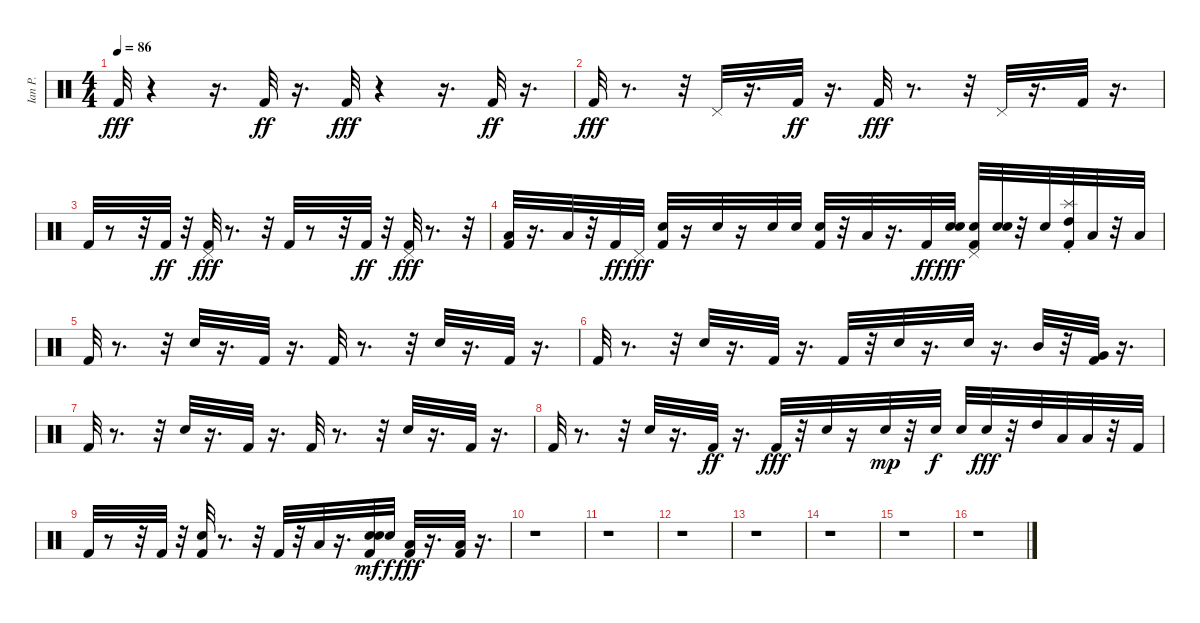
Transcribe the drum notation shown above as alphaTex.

\track ("Ian P." "Ian P.") {instrument percussion}
\staff {score}
\articulation defaults
\ts (4 4)
\tempo 86
\clef neutral
\ks c "Kick (hit) 2".32{dy fff}
r.4 r.16{d} "Kick (hit) 2".32{dy ff} r.16{d} "Kick (hit) 2".32{dy fff} r.4 r.16{d} "Kick (hit) 2".32{dy ff} r.16{d} |
"Kick (hit) 2".32{dy fff} r.8{d} r.32 "Pedal Hi-Hat (hit)".32 r.16{d} "Kick (hit) 2".32{dy ff} r.16{d} "Kick (hit) 2".32{dy fff} r.8{d} r.32 "Pedal Hi-Hat (hit)".32 r.16{d} "Kick (hit) 2".32 r.16{d} |
"Kick (hit) 2".32 r.8 r.32 "Kick (hit) 2".32{dy ff} r.32 ("Kick (hit) 2" "Pedal Hi-Hat (hit)").32{dy fff} r.8{d} r.32 "Kick (hit) 2".32 r.8 r.32 "Kick (hit) 2".32{dy ff} r.32 ("Kick (hit) 2" "Pedal Hi-Hat (hit)").32{dy fff} r.8{d} r.32 |
("Kick (hit) 2" "Low Floor Tom (hit)").32 r.16{d} "Low Floor Tom (hit)".32 r.32 "Kick (hit) 2".32{dy ff} "Pedal Hi-Hat (hit)".32{dy fff} ("Kick (hit) 2" "Snare (hit) 2").32 r.16 "Snare (hit) 2".32 r.16 "Snare (hit) 2".32 "Snare (hit) 2".32 ("Snare (hit) 2" "Kick (hit) 2").32 r.32 "Low Floor Tom (hit)".32 r.16{d} "Kick (hit) 2".32{dy ff} ("Snare (hit) 2" "Snare (hit) 2").32{dy fff} ("Kick (hit) 2" "Pedal Hi-Hat (hit)" "Snare (hit) 2").32 ("Snare (hit) 2" "Snare (hit) 2").32 r.32 "Snare (hit) 2".32 ("Kick (hit) 2" "Splash (choke)" "High Tom (hit)").32 "Low Tom (hit)".32 r.32 "Low Floor Tom (hit)".32 |
"Kick (hit) 2".32{volume 16 balance 8} r.8{d} r.32 "Snare (hit) 2".32 r.16{d} "Kick (hit) 2".32 r.16{d} "Kick (hit) 2".32 r.8{d} r.32 "Snare (hit) 2".32 r.16{d} "Kick (hit) 2".32 r.16{d} |
"Kick (hit) 2".32 r.8{d} r.32 "Snare (hit) 2".32 r.16{d} "Kick (hit) 2".32 r.16{d} "Kick (hit) 2".32 r.32 "Snare (hit) 2".32 r.16{d} "Snare (hit) 2".32 r.16{d} "Mid Tom (hit)".32 r.32 ("Very Low Tom (hit)" "Kick (hit) 2").32 r.16{d} |
"Kick (hit) 2".32 r.8{d} r.32 "Snare (hit) 2".32 r.16{d} "Kick (hit) 2".32 r.16{d} "Kick (hit) 2".32 r.8{d} r.32 "Snare (hit) 2".32 r.16{d} "Kick (hit) 2".32 r.16{d} |
"Kick (hit) 2".32 r.8{d} r.32 "Snare (hit) 2".32 r.16{d} "Kick (hit) 2".32{dy ff} r.16{d} "Kick (hit) 2".32{dy fff} r.32 "Snare (hit) 2".32 r.16 "Snare (hit) 2".32{dy mp} r.32 "Snare (hit) 2".32{dy f} "Snare (hit) 2".32 "Snare (hit) 2".32{dy fff} r.32 "High Tom (hit)".32 "Low Tom (hit)".32 "Low Floor Tom (hit)".32 r.32 "Kick (hit) 2".32 |
"Kick (hit) 2".32 r.8 r.32 "Kick (hit) 2".32 r.32 ("Snare (hit) 2" "Kick (hit) 2").32 r.8{d} r.32 "Kick (hit) 2".32 r.32 "Low Floor Tom (hit)".32 r.16{d} ("Kick (hit) 2" "Snare (hit) 2" "Snare (hit) 2").32{dy mf} "Snare (hit) 2".32{dy f} ("Kick (hit) 2" "Low Tom (hit)").32{dy fff} r.16{d} ("Kick (hit) 2" "Low Floor Tom (hit)").32 r.16{d} |
r.1 |
r.1 |
r.1 |
r.1 |
r.1 |
r.1 |
r.1
